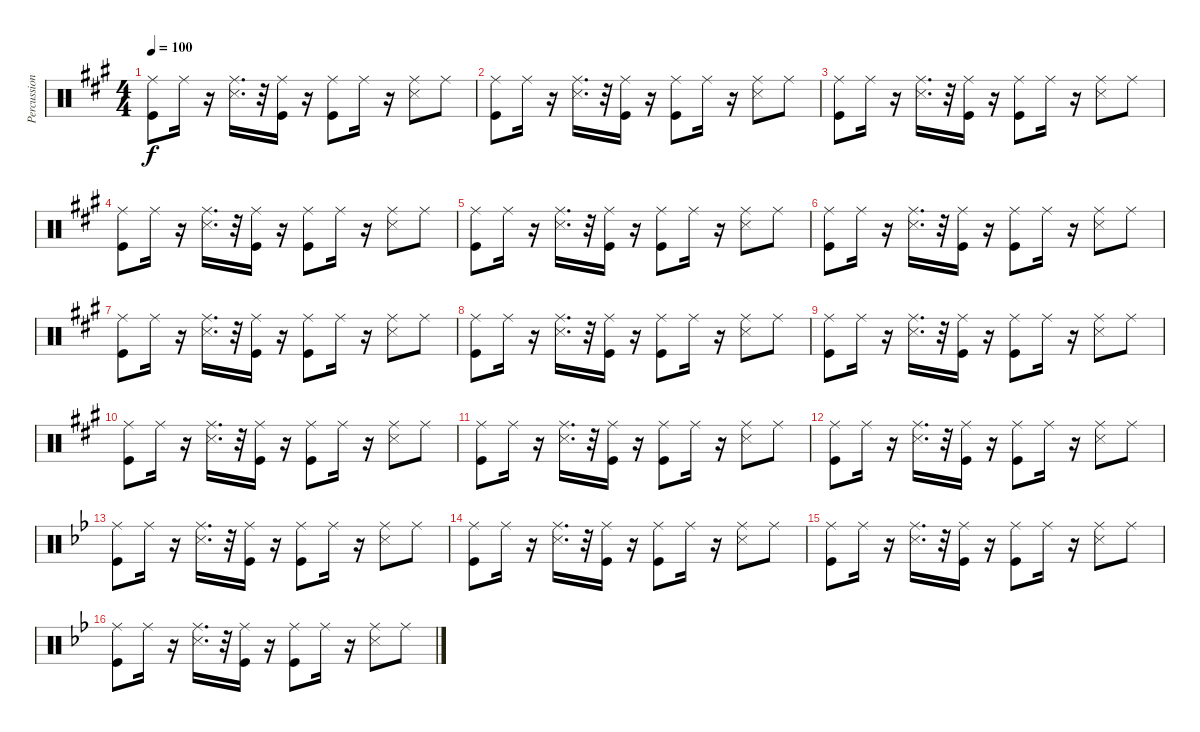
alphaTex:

\track ("Percussion" "Percussion") {instrument percussion}
\staff {score}
\articulation defaults
\ts (4 4)
\tempo 100
\clef neutral
\ks a
("Kick (hit)" "Ride (middle)").8{dy f} "Ride (middle)".16 r.16 ("Snare (side stick) 3" "Ride (middle)").16{d} r.32 ("Ride (middle)" "Kick (hit)").16 r.16 ("Ride (middle)" "Kick (hit)").8 "Ride (middle)".16 r.16 ("Snare (side stick) 3" "Ride (middle)").8 "Ride (middle)".8 |
("Kick (hit)" "Ride (middle)").8 "Ride (middle)".16 r.16 ("Snare (side stick) 3" "Ride (middle)").16{d} r.32 ("Ride (middle)" "Kick (hit)").16 r.16 ("Ride (middle)" "Kick (hit)").8 "Ride (middle)".16 r.16 ("Snare (side stick) 3" "Ride (middle)").8 "Ride (middle)".8 |
("Kick (hit)" "Ride (middle)").8 "Ride (middle)".16 r.16 ("Snare (side stick) 3" "Ride (middle)").16{d} r.32 ("Ride (middle)" "Kick (hit)").16 r.16 ("Ride (middle)" "Kick (hit)").8 "Ride (middle)".16 r.16 ("Snare (side stick) 3" "Ride (middle)").8 "Ride (middle)".8 |
("Kick (hit)" "Ride (middle)").8 "Ride (middle)".16 r.16 ("Snare (side stick) 3" "Ride (middle)").16{d} r.32 ("Ride (middle)" "Kick (hit)").16 r.16 ("Ride (middle)" "Kick (hit)").8 "Ride (middle)".16 r.16 ("Snare (side stick) 3" "Ride (middle)").8 "Ride (middle)".8 |
("Kick (hit)" "Ride (middle)").8 "Ride (middle)".16 r.16 ("Snare (side stick) 3" "Ride (middle)").16{d} r.32 ("Ride (middle)" "Kick (hit)").16 r.16 ("Ride (middle)" "Kick (hit)").8 "Ride (middle)".16 r.16 ("Snare (side stick) 3" "Ride (middle)").8 "Ride (middle)".8 |
("Kick (hit)" "Ride (middle)").8 "Ride (middle)".16 r.16 ("Snare (side stick) 3" "Ride (middle)").16{d} r.32 ("Ride (middle)" "Kick (hit)").16 r.16 ("Ride (middle)" "Kick (hit)").8 "Ride (middle)".16 r.16 ("Snare (side stick) 3" "Ride (middle)").8 "Ride (middle)".8 |
("Kick (hit)" "Ride (middle)").8 "Ride (middle)".16 r.16 ("Snare (side stick) 3" "Ride (middle)").16{d} r.32 ("Ride (middle)" "Kick (hit)").16 r.16 ("Ride (middle)" "Kick (hit)").8 "Ride (middle)".16 r.16 ("Snare (side stick) 3" "Ride (middle)").8 "Ride (middle)".8 |
("Kick (hit)" "Ride (middle)").8 "Ride (middle)".16 r.16 ("Snare (side stick) 3" "Ride (middle)").16{d} r.32 ("Ride (middle)" "Kick (hit)").16 r.16 ("Ride (middle)" "Kick (hit)").8 "Ride (middle)".16 r.16 ("Snare (side stick) 3" "Ride (middle)").8 "Ride (middle)".8 |
("Kick (hit)" "Ride (middle)").8 "Ride (middle)".16 r.16 ("Snare (side stick) 3" "Ride (middle)").16{d} r.32 ("Ride (middle)" "Kick (hit)").16 r.16 ("Ride (middle)" "Kick (hit)").8 "Ride (middle)".16 r.16 ("Snare (side stick) 3" "Ride (middle)").8 "Ride (middle)".8 |
("Kick (hit)" "Ride (middle)").8 "Ride (middle)".16 r.16 ("Snare (side stick) 3" "Ride (middle)").16{d} r.32 ("Ride (middle)" "Kick (hit)").16 r.16 ("Ride (middle)" "Kick (hit)").8 "Ride (middle)".16 r.16 ("Snare (side stick) 3" "Ride (middle)").8 "Ride (middle)".8 |
("Kick (hit)" "Ride (middle)").8 "Ride (middle)".16 r.16 ("Snare (side stick) 3" "Ride (middle)").16{d} r.32 ("Ride (middle)" "Kick (hit)").16 r.16 ("Ride (middle)" "Kick (hit)").8 "Ride (middle)".16 r.16 ("Snare (side stick) 3" "Ride (middle)").8 "Ride (middle)".8 |
("Kick (hit)" "Ride (middle)").8 "Ride (middle)".16 r.16 ("Snare (side stick) 3" "Ride (middle)").16{d} r.32 ("Ride (middle)" "Kick (hit)").16 r.16 ("Ride (middle)" "Kick (hit)").8 "Ride (middle)".16 r.16 ("Snare (side stick) 3" "Ride (middle)").8 "Ride (middle)".8 |
\ks bb
("Kick (hit)" "Ride (middle)").8 "Ride (middle)".16 r.16 ("Snare (side stick) 3" "Ride (middle)").16{d} r.32 ("Ride (middle)" "Kick (hit)").16 r.16 ("Ride (middle)" "Kick (hit)").8 "Ride (middle)".16 r.16 ("Snare (side stick) 3" "Ride (middle)").8 "Ride (middle)".8 |
("Kick (hit)" "Ride (middle)").8 "Ride (middle)".16 r.16 ("Snare (side stick) 3" "Ride (middle)").16{d} r.32 ("Ride (middle)" "Kick (hit)").16 r.16 ("Ride (middle)" "Kick (hit)").8 "Ride (middle)".16 r.16 ("Snare (side stick) 3" "Ride (middle)").8 "Ride (middle)".8 |
("Kick (hit)" "Ride (middle)").8 "Ride (middle)".16 r.16 ("Snare (side stick) 3" "Ride (middle)").16{d} r.32 ("Ride (middle)" "Kick (hit)").16 r.16 ("Ride (middle)" "Kick (hit)").8 "Ride (middle)".16 r.16 ("Snare (side stick) 3" "Ride (middle)").8 "Ride (middle)".8 |
("Kick (hit)" "Ride (middle)").8 "Ride (middle)".16 r.16 ("Snare (side stick) 3" "Ride (middle)").16{d} r.32 ("Ride (middle)" "Kick (hit)").16 r.16 ("Ride (middle)" "Kick (hit)").8 "Ride (middle)".16 r.16 ("Snare (side stick) 3" "Ride (middle)").8 "Ride (middle)".8
